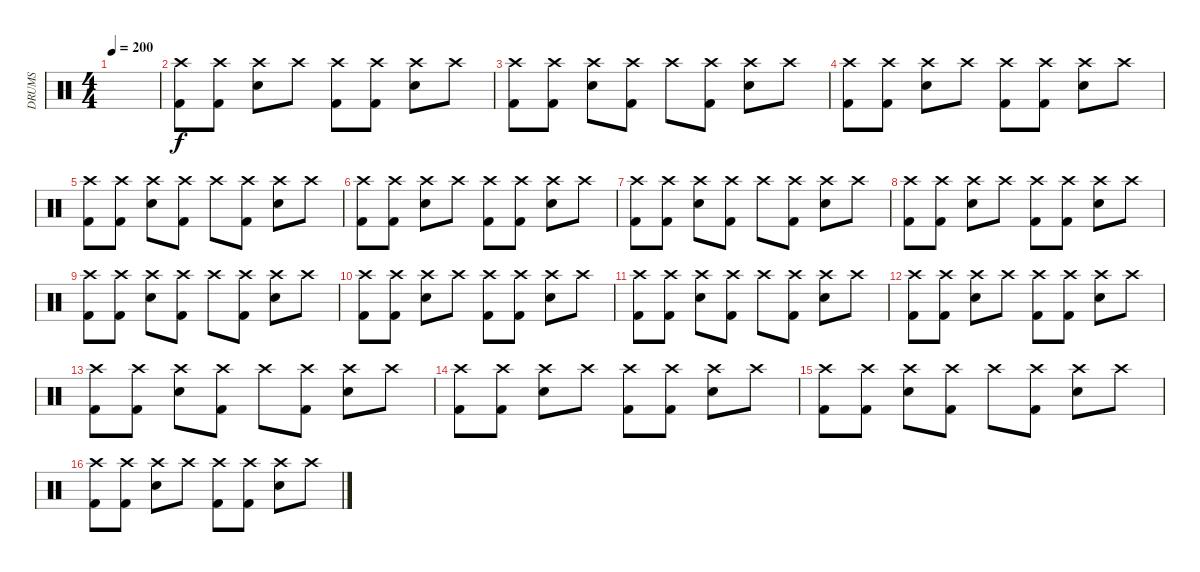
\track ("DRUMS" "DRUMS") {instrument percussion}
\staff {score}
\articulation defaults
\ts (4 4)
\tempo 200
\clef neutral
\ks c
|
("Crash high (hit)" "Kick (hit) 2").8 ("Crash high (hit)" "Kick (hit) 2").8 ("Crash high (hit)" "Snare (hit) 2").8 "Crash high (hit)".8 ("Crash high (hit)" "Kick (hit) 2").8 ("Crash high (hit)" "Kick (hit) 2").8 ("Crash high (hit)" "Snare (hit) 2").8 "Crash high (hit)".8 |
("Crash high (hit)" "Kick (hit) 2").8 ("Crash high (hit)" "Kick (hit) 2").8 ("Crash high (hit)" "Snare (hit) 2").8 ("Crash high (hit)" "Kick (hit) 2").8 "Crash high (hit)".8 ("Crash high (hit)" "Kick (hit) 2").8 ("Crash high (hit)" "Snare (hit) 2").8 "Crash high (hit)".8 |
("Crash high (hit)" "Kick (hit) 2").8 ("Crash high (hit)" "Kick (hit) 2").8 ("Crash high (hit)" "Snare (hit) 2").8 "Crash high (hit)".8 ("Crash high (hit)" "Kick (hit) 2").8 ("Crash high (hit)" "Kick (hit) 2").8 ("Crash high (hit)" "Snare (hit) 2").8 "Crash high (hit)".8 |
("Crash high (hit)" "Kick (hit) 2").8 ("Crash high (hit)" "Kick (hit) 2").8 ("Crash high (hit)" "Snare (hit) 2").8 ("Crash high (hit)" "Kick (hit) 2").8 "Crash high (hit)".8 ("Crash high (hit)" "Kick (hit) 2").8 ("Crash high (hit)" "Snare (hit) 2").8 "Crash high (hit)".8 |
("Crash high (hit)" "Kick (hit) 2").8 ("Crash high (hit)" "Kick (hit) 2").8 ("Crash high (hit)" "Snare (hit) 2").8 "Crash high (hit)".8 ("Crash high (hit)" "Kick (hit) 2").8 ("Crash high (hit)" "Kick (hit) 2").8 ("Crash high (hit)" "Snare (hit) 2").8 "Crash high (hit)".8 |
("Crash high (hit)" "Kick (hit) 2").8 ("Crash high (hit)" "Kick (hit) 2").8 ("Crash high (hit)" "Snare (hit) 2").8 ("Crash high (hit)" "Kick (hit) 2").8 "Crash high (hit)".8 ("Crash high (hit)" "Kick (hit) 2").8 ("Crash high (hit)" "Snare (hit) 2").8 "Crash high (hit)".8 |
("Crash high (hit)" "Kick (hit) 2").8 ("Crash high (hit)" "Kick (hit) 2").8 ("Crash high (hit)" "Snare (hit) 2").8 "Crash high (hit)".8 ("Crash high (hit)" "Kick (hit) 2").8 ("Crash high (hit)" "Kick (hit) 2").8 ("Crash high (hit)" "Snare (hit) 2").8 "Crash high (hit)".8 |
("Crash high (hit)" "Kick (hit) 2").8 ("Crash high (hit)" "Kick (hit) 2").8 ("Crash high (hit)" "Snare (hit) 2").8 ("Crash high (hit)" "Kick (hit) 2").8 "Crash high (hit)".8 ("Crash high (hit)" "Kick (hit) 2").8 ("Crash high (hit)" "Snare (hit) 2").8 "Crash high (hit)".8 |
("Crash high (hit)" "Kick (hit) 2").8 ("Crash high (hit)" "Kick (hit) 2").8 ("Crash high (hit)" "Snare (hit) 2").8 "Crash high (hit)".8 ("Crash high (hit)" "Kick (hit) 2").8 ("Crash high (hit)" "Kick (hit) 2").8 ("Crash high (hit)" "Snare (hit) 2").8 "Crash high (hit)".8 |
("Crash high (hit)" "Kick (hit) 2").8 ("Crash high (hit)" "Kick (hit) 2").8 ("Crash high (hit)" "Snare (hit) 2").8 ("Crash high (hit)" "Kick (hit) 2").8 "Crash high (hit)".8 ("Crash high (hit)" "Kick (hit) 2").8 ("Crash high (hit)" "Snare (hit) 2").8 "Crash high (hit)".8 |
("Crash high (hit)" "Kick (hit) 2").8 ("Crash high (hit)" "Kick (hit) 2").8 ("Crash high (hit)" "Snare (hit) 2").8 "Crash high (hit)".8 ("Crash high (hit)" "Kick (hit) 2").8 ("Crash high (hit)" "Kick (hit) 2").8 ("Crash high (hit)" "Snare (hit) 2").8 "Crash high (hit)".8 |
("Crash high (hit)" "Kick (hit) 2").8 ("Crash high (hit)" "Kick (hit) 2").8 ("Crash high (hit)" "Snare (hit) 2").8 ("Crash high (hit)" "Kick (hit) 2").8 "Crash high (hit)".8 ("Crash high (hit)" "Kick (hit) 2").8 ("Crash high (hit)" "Snare (hit) 2").8 "Crash high (hit)".8 |
("Crash high (hit)" "Kick (hit) 2").8 ("Crash high (hit)" "Kick (hit) 2").8 ("Crash high (hit)" "Snare (hit) 2").8 "Crash high (hit)".8 ("Crash high (hit)" "Kick (hit) 2").8 ("Crash high (hit)" "Kick (hit) 2").8 ("Crash high (hit)" "Snare (hit) 2").8 "Crash high (hit)".8 |
("Crash high (hit)" "Kick (hit) 2").8 ("Crash high (hit)" "Kick (hit) 2").8 ("Crash high (hit)" "Snare (hit) 2").8 ("Crash high (hit)" "Kick (hit) 2").8 "Crash high (hit)".8 ("Crash high (hit)" "Kick (hit) 2").8 ("Crash high (hit)" "Snare (hit) 2").8 "Crash high (hit)".8 |
("Crash high (hit)" "Kick (hit) 2").8 ("Crash high (hit)" "Kick (hit) 2").8 ("Crash high (hit)" "Snare (hit) 2").8 "Crash high (hit)".8 ("Crash high (hit)" "Kick (hit) 2").8 ("Crash high (hit)" "Kick (hit) 2").8 ("Crash high (hit)" "Snare (hit) 2").8 "Crash high (hit)".8
